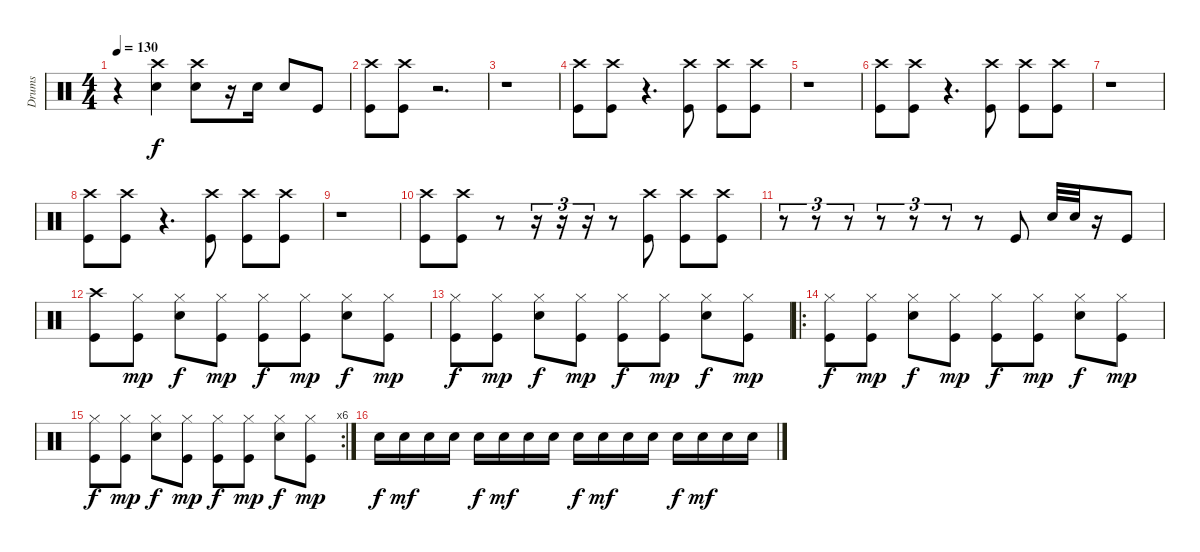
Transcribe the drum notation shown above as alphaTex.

\track ("Drums" "Drums") {instrument percussion}
\staff {score}
\articulation defaults
\ts (4 4)
\tempo 130
\clef neutral
\ks c
r.4{dy f} ("Snare (hit) 2" "Crash high (hit)").4 ("Snare (hit) 2" "Crash high (hit)").8 r.16 "Snare (hit) 2".16 "Snare (hit) 2".8 "Kick (hit)".8 |
("Kick (hit)" "Crash high (hit)").8 ("Kick (hit)" "Crash high (hit)").8 r.2{d} |
r.1 |
("Kick (hit)" "Crash high (hit)").8 ("Kick (hit)" "Crash high (hit)").8 r.4{d} ("Kick (hit)" "Crash high (hit)").8 ("Kick (hit)" "Crash high (hit)").8 ("Kick (hit)" "Crash high (hit)").8 |
r.1 |
("Kick (hit)" "Crash high (hit)").8 ("Kick (hit)" "Crash high (hit)").8 r.4{d} ("Kick (hit)" "Crash high (hit)").8 ("Kick (hit)" "Crash high (hit)").8 ("Kick (hit)" "Crash high (hit)").8 |
r.1 |
("Kick (hit)" "Crash high (hit)").8 ("Kick (hit)" "Crash high (hit)").8 r.4{d} ("Kick (hit)" "Crash high (hit)").8 ("Kick (hit)" "Crash high (hit)").8 ("Kick (hit)" "Crash high (hit)").8 |
r.1 |
("Kick (hit)" "Crash high (hit)").8 ("Kick (hit)" "Crash high (hit)").8 r.8 r.16{tu (3 2)} r.16{tu (3 2)} r.16{tu (3 2)} r.8 ("Kick (hit)" "Crash high (hit)").8 ("Kick (hit)" "Crash high (hit)").8 ("Kick (hit)" "Crash high (hit)").8 |
r.8{tu (3 2)} r.8{tu (3 2)} r.8{tu (3 2)} r.8{tu (3 2)} r.8{tu (3 2)} r.8{tu (3 2)} r.8 "Kick (hit)".8 "Snare (hit) 2".32 "Snare (hit) 2".32 r.16 "Kick (hit)".8 |
("Kick (hit)" "Crash high (hit)").8 ("Hi-Hat (closed)" "Kick (hit)").8{dy mp} ("Hi-Hat (closed)" "Snare (hit) 2").8{dy f} ("Hi-Hat (closed)" "Kick (hit)").8{dy mp} ("Hi-Hat (closed)" "Kick (hit)").8{dy f} ("Hi-Hat (closed)" "Kick (hit)").8{dy mp} ("Hi-Hat (closed)" "Snare (hit) 2").8{dy f} ("Hi-Hat (closed)" "Kick (hit)").8{dy mp} |
("Hi-Hat (closed)" "Kick (hit)").8{dy f} ("Hi-Hat (closed)" "Kick (hit)").8{dy mp} ("Hi-Hat (closed)" "Snare (hit) 2").8{dy f} ("Hi-Hat (closed)" "Kick (hit)").8{dy mp} ("Hi-Hat (closed)" "Kick (hit)").8{dy f} ("Hi-Hat (closed)" "Kick (hit)").8{dy mp} ("Hi-Hat (closed)" "Snare (hit) 2").8{dy f} ("Hi-Hat (closed)" "Kick (hit)").8{dy mp} |
\ro
("Hi-Hat (closed)" "Kick (hit)").8{dy f} ("Hi-Hat (closed)" "Kick (hit)").8{dy mp} ("Hi-Hat (closed)" "Snare (hit) 2").8{dy f} ("Hi-Hat (closed)" "Kick (hit)").8{dy mp} ("Hi-Hat (closed)" "Kick (hit)").8{dy f} ("Hi-Hat (closed)" "Kick (hit)").8{dy mp} ("Hi-Hat (closed)" "Snare (hit) 2").8{dy f} ("Hi-Hat (closed)" "Kick (hit)").8{dy mp} |
\rc 6
("Hi-Hat (closed)" "Kick (hit)").8{dy f} ("Hi-Hat (closed)" "Kick (hit)").8{dy mp} ("Hi-Hat (closed)" "Snare (hit) 2").8{dy f} ("Hi-Hat (closed)" "Kick (hit)").8{dy mp} ("Hi-Hat (closed)" "Kick (hit)").8{dy f} ("Hi-Hat (closed)" "Kick (hit)").8{dy mp} ("Hi-Hat (closed)" "Snare (hit) 2").8{dy f} ("Hi-Hat (closed)" "Kick (hit)").8{dy mp} |
"Snare (hit) 2".16{dy f} "Snare (hit) 2".16{dy mf} "Snare (hit) 2".16 "Snare (hit) 2".16 "Snare (hit) 2".16{dy f} "Snare (hit) 2".16{dy mf} "Snare (hit) 2".16 "Snare (hit) 2".16 "Snare (hit) 2".16{dy f} "Snare (hit) 2".16{dy mf} "Snare (hit) 2".16 "Snare (hit) 2".16 "Snare (hit) 2".16{dy f} "Snare (hit) 2".16{dy mf} "Snare (hit) 2".16 "Snare (hit) 2".16
